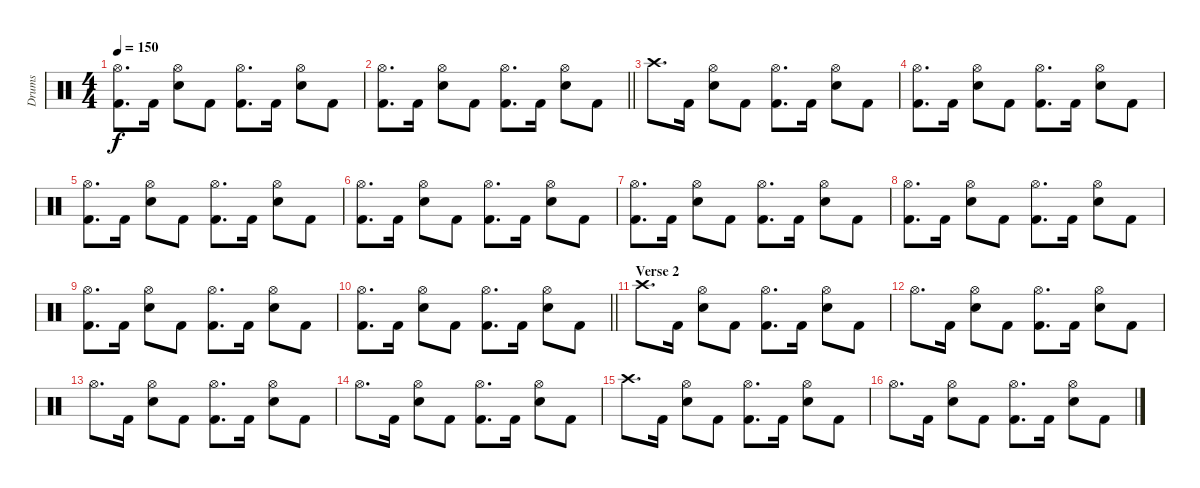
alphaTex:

\track ("Drums" "Drums") {instrument percussion}
\staff {score}
\articulation defaults
\ts (4 4)
\tempo 150
\clef neutral
\ks c
("Kick (hit) 2" "Hi-Hat (open)").8{d dy f} "Kick (hit) 2".16 ("Snare (hit) 2" "Hi-Hat (open)").8 "Kick (hit) 2".8 ("Kick (hit) 2" "Hi-Hat (open)").8{d} "Kick (hit) 2".16 ("Snare (hit) 2" "Hi-Hat (open)").8 "Kick (hit) 2".8 |
\barLineRight lightlight
("Kick (hit) 2" "Hi-Hat (open)").8{d} "Kick (hit) 2".16 ("Snare (hit) 2" "Hi-Hat (open)").8 "Kick (hit) 2".8 ("Kick (hit) 2" "Hi-Hat (open)").8{d} "Kick (hit) 2".16 ("Snare (hit) 2" "Hi-Hat (open)").8 "Kick (hit) 2".8 |
"Crash high (hit)".8{d} "Kick (hit) 2".16 ("Snare (hit) 2" "Hi-Hat (open)").8 "Kick (hit) 2".8 ("Kick (hit) 2" "Hi-Hat (open)").8{d} "Kick (hit) 2".16 ("Snare (hit) 2" "Hi-Hat (open)").8 "Kick (hit) 2".8 |
("Kick (hit) 2" "Hi-Hat (open)").8{d} "Kick (hit) 2".16 ("Snare (hit) 2" "Hi-Hat (open)").8 "Kick (hit) 2".8 ("Kick (hit) 2" "Hi-Hat (open)").8{d} "Kick (hit) 2".16 ("Snare (hit) 2" "Hi-Hat (open)").8 "Kick (hit) 2".8 |
("Kick (hit) 2" "Hi-Hat (open)").8{d} "Kick (hit) 2".16 ("Snare (hit) 2" "Hi-Hat (open)").8 "Kick (hit) 2".8 ("Kick (hit) 2" "Hi-Hat (open)").8{d} "Kick (hit) 2".16 ("Snare (hit) 2" "Hi-Hat (open)").8 "Kick (hit) 2".8 |
("Kick (hit) 2" "Hi-Hat (open)").8{d} "Kick (hit) 2".16 ("Snare (hit) 2" "Hi-Hat (open)").8 "Kick (hit) 2".8 ("Kick (hit) 2" "Hi-Hat (open)").8{d} "Kick (hit) 2".16 ("Snare (hit) 2" "Hi-Hat (open)").8 "Kick (hit) 2".8 |
("Kick (hit) 2" "Hi-Hat (open)").8{d} "Kick (hit) 2".16 ("Snare (hit) 2" "Hi-Hat (open)").8 "Kick (hit) 2".8 ("Kick (hit) 2" "Hi-Hat (open)").8{d} "Kick (hit) 2".16 ("Snare (hit) 2" "Hi-Hat (open)").8 "Kick (hit) 2".8 |
("Kick (hit) 2" "Hi-Hat (open)").8{d} "Kick (hit) 2".16 ("Snare (hit) 2" "Hi-Hat (open)").8 "Kick (hit) 2".8 ("Kick (hit) 2" "Hi-Hat (open)").8{d} "Kick (hit) 2".16 ("Snare (hit) 2" "Hi-Hat (open)").8 "Kick (hit) 2".8 |
("Kick (hit) 2" "Hi-Hat (open)").8{d} "Kick (hit) 2".16 ("Snare (hit) 2" "Hi-Hat (open)").8 "Kick (hit) 2".8 ("Kick (hit) 2" "Hi-Hat (open)").8{d} "Kick (hit) 2".16 ("Snare (hit) 2" "Hi-Hat (open)").8 "Kick (hit) 2".8 |
\barLineRight lightlight
("Kick (hit) 2" "Hi-Hat (open)").8{d} "Kick (hit) 2".16 ("Snare (hit) 2" "Hi-Hat (open)").8 "Kick (hit) 2".8 ("Kick (hit) 2" "Hi-Hat (open)").8{d} "Kick (hit) 2".16 ("Snare (hit) 2" "Hi-Hat (open)").8 "Kick (hit) 2".8 |
\section ("" "Verse 2")
"Crash high (hit)".8{d} "Kick (hit) 2".16 ("Snare (hit) 2" "Hi-Hat (open)").8 "Kick (hit) 2".8 ("Kick (hit) 2" "Hi-Hat (open)").8{d} "Kick (hit) 2".16 ("Snare (hit) 2" "Hi-Hat (open)").8 "Kick (hit) 2".8 |
"Hi-Hat (open)".8{d} "Kick (hit) 2".16 ("Snare (hit) 2" "Hi-Hat (open)").8 "Kick (hit) 2".8 ("Kick (hit) 2" "Hi-Hat (open)").8{d} "Kick (hit) 2".16 ("Snare (hit) 2" "Hi-Hat (open)").8 "Kick (hit) 2".8 |
"Hi-Hat (open)".8{d} "Kick (hit) 2".16 ("Snare (hit) 2" "Hi-Hat (open)").8 "Kick (hit) 2".8 ("Kick (hit) 2" "Hi-Hat (open)").8{d} "Kick (hit) 2".16 ("Snare (hit) 2" "Hi-Hat (open)").8 "Kick (hit) 2".8 |
"Hi-Hat (open)".8{d} "Kick (hit) 2".16 ("Snare (hit) 2" "Hi-Hat (open)").8 "Kick (hit) 2".8 ("Kick (hit) 2" "Hi-Hat (open)").8{d} "Kick (hit) 2".16 ("Snare (hit) 2" "Hi-Hat (open)").8 "Kick (hit) 2".8 |
"Crash high (hit)".8{d} "Kick (hit) 2".16 ("Snare (hit) 2" "Hi-Hat (open)").8 "Kick (hit) 2".8 ("Kick (hit) 2" "Hi-Hat (open)").8{d} "Kick (hit) 2".16 ("Snare (hit) 2" "Hi-Hat (open)").8 "Kick (hit) 2".8 |
"Hi-Hat (open)".8{d} "Kick (hit) 2".16 ("Snare (hit) 2" "Hi-Hat (open)").8 "Kick (hit) 2".8 ("Kick (hit) 2" "Hi-Hat (open)").8{d} "Kick (hit) 2".16 ("Snare (hit) 2" "Hi-Hat (open)").8 "Kick (hit) 2".8
